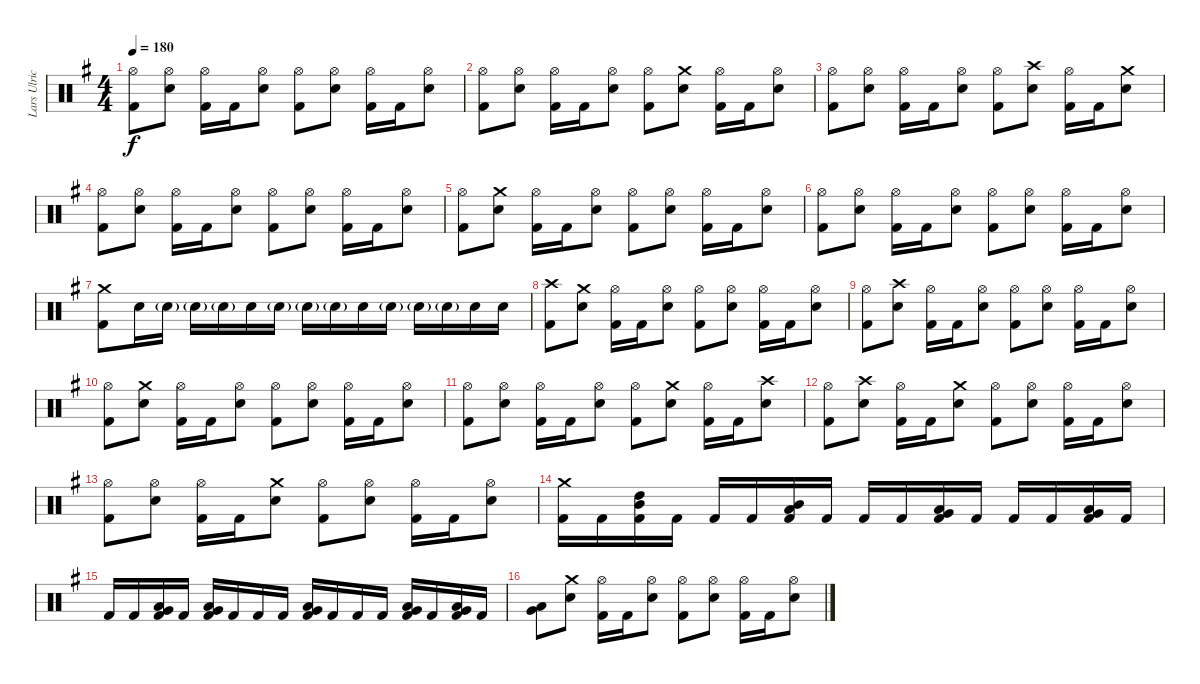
\track ("Lars Ulrich" "Lars Ulric") {instrument percussion}
\staff {score}
\articulation defaults
\ts (4 4)
\tempo 180
\clef neutral
\ks eminor
("Hi-Hat (open)" "Kick (hit) 2").8{dy f} ("Hi-Hat (open)" "Snare (hit) 2").8 ("Hi-Hat (open)" "Kick (hit) 2").16 "Kick (hit) 2".16 ("Hi-Hat (open)" "Snare (hit) 2").8 ("Hi-Hat (open)" "Kick (hit) 2").8 ("Hi-Hat (open)" "Snare (hit) 2").8 ("Hi-Hat (open)" "Kick (hit) 2").16 "Kick (hit) 2".16 ("Hi-Hat (open)" "Snare (hit) 2").8 |
("Hi-Hat (open)" "Kick (hit) 2").8 ("Hi-Hat (open)" "Snare (hit) 2").8 ("Hi-Hat (open)" "Kick (hit) 2").16 "Kick (hit) 2".16 ("Hi-Hat (open)" "Snare (hit) 2").8 ("Hi-Hat (open)" "Kick (hit) 2").8 ("Crash medium (hit)" "Snare (hit) 2").8 ("Hi-Hat (open)" "Kick (hit) 2").16 "Kick (hit) 2".16 ("Hi-Hat (open)" "Snare (hit) 2").8 |
("Hi-Hat (open)" "Kick (hit) 2").8 ("Hi-Hat (open)" "Snare (hit) 2").8 ("Hi-Hat (open)" "Kick (hit) 2").16 "Kick (hit) 2".16 ("Hi-Hat (open)" "Snare (hit) 2").8 ("Hi-Hat (open)" "Kick (hit) 2").8 ("Crash high (hit)" "Snare (hit) 2").8 ("Hi-Hat (open)" "Kick (hit) 2").16 "Kick (hit) 2".16 ("Crash medium (hit)" "Snare (hit) 2").8 |
("Hi-Hat (open)" "Kick (hit) 2").8 ("Hi-Hat (open)" "Snare (hit) 2").8 ("Hi-Hat (open)" "Kick (hit) 2").16 "Kick (hit) 2".16 ("Hi-Hat (open)" "Snare (hit) 2").8 ("Hi-Hat (open)" "Kick (hit) 2").8 ("Hi-Hat (open)" "Snare (hit) 2").8 ("Hi-Hat (open)" "Kick (hit) 2").16 "Kick (hit) 2".16 ("Hi-Hat (open)" "Snare (hit) 2").8 |
("Hi-Hat (open)" "Kick (hit) 2").8 ("Crash medium (hit)" "Snare (hit) 2").8 ("Hi-Hat (open)" "Kick (hit) 2").16 "Kick (hit) 2".16 ("Hi-Hat (open)" "Snare (hit) 2").8 ("Hi-Hat (open)" "Kick (hit) 2").8 ("Hi-Hat (open)" "Snare (hit) 2").8 ("Hi-Hat (open)" "Kick (hit) 2").16 "Kick (hit) 2".16 ("Hi-Hat (open)" "Snare (hit) 2").8 |
("Hi-Hat (open)" "Kick (hit) 2").8 ("Hi-Hat (open)" "Snare (hit) 2").8 ("Hi-Hat (open)" "Kick (hit) 2").16 "Kick (hit) 2".16 ("Hi-Hat (open)" "Snare (hit) 2").8 ("Hi-Hat (open)" "Kick (hit) 2").8 ("Hi-Hat (open)" "Snare (hit) 2").8 ("Hi-Hat (open)" "Kick (hit) 2").16 "Kick (hit) 2".16 ("Hi-Hat (open)" "Snare (hit) 2").8 |
("Crash medium (hit)" "Kick (hit) 2").8 "Snare (hit) 2".16 "Snare (hit) 2"{g}.16 "Snare (hit) 2"{g}.16 "Snare (hit) 2"{g}.16 "Snare (hit) 2".16 "Snare (hit) 2"{g}.16 "Snare (hit) 2"{g}.16 "Snare (hit) 2"{g}.16 "Snare (hit) 2".16 "Snare (hit) 2"{g}.16 "Snare (hit) 2"{g}.16 "Snare (hit) 2"{g}.16 "Snare (hit) 2".16 "Snare (hit) 2".16 |
("Crash high (hit)" "Kick (hit) 2").8 ("Crash medium (hit)" "Snare (hit) 2").8 ("Hi-Hat (open)" "Kick (hit) 2").16 "Kick (hit) 2".16 ("Hi-Hat (open)" "Snare (hit) 2").8 ("Hi-Hat (open)" "Kick (hit) 2").8 ("Hi-Hat (open)" "Snare (hit) 2").8 ("Hi-Hat (open)" "Kick (hit) 2").16 "Kick (hit) 2".16 ("Hi-Hat (open)" "Snare (hit) 2").8 |
("Hi-Hat (open)" "Kick (hit) 2").8 ("Crash high (hit)" "Snare (hit) 2").8 ("Hi-Hat (open)" "Kick (hit) 2").16 "Kick (hit) 2".16 ("Hi-Hat (open)" "Snare (hit) 2").8 ("Hi-Hat (open)" "Kick (hit) 2").8 ("Hi-Hat (open)" "Snare (hit) 2").8 ("Hi-Hat (open)" "Kick (hit) 2").16 "Kick (hit) 2".16 ("Hi-Hat (open)" "Snare (hit) 2").8 |
("Hi-Hat (open)" "Kick (hit) 2").8 ("Crash medium (hit)" "Snare (hit) 2").8 ("Hi-Hat (open)" "Kick (hit) 2").16 "Kick (hit) 2".16 ("Hi-Hat (open)" "Snare (hit) 2").8 ("Hi-Hat (open)" "Kick (hit) 2").8 ("Hi-Hat (open)" "Snare (hit) 2").8 ("Hi-Hat (open)" "Kick (hit) 2").16 "Kick (hit) 2".16 ("Hi-Hat (open)" "Snare (hit) 2").8 |
("Hi-Hat (open)" "Kick (hit) 2").8 ("Hi-Hat (open)" "Snare (hit) 2").8 ("Hi-Hat (open)" "Kick (hit) 2").16 "Kick (hit) 2".16 ("Hi-Hat (open)" "Snare (hit) 2").8 ("Hi-Hat (open)" "Kick (hit) 2").8 ("Crash medium (hit)" "Snare (hit) 2").8 ("Hi-Hat (open)" "Kick (hit) 2").16 "Kick (hit) 2".16 ("Crash high (hit)" "Snare (hit) 2").8 |
("Hi-Hat (open)" "Kick (hit) 2").8 ("Crash high (hit)" "Snare (hit) 2").8 ("Hi-Hat (open)" "Kick (hit) 2").16 "Kick (hit) 2".16 ("Crash medium (hit)" "Snare (hit) 2").8 ("Hi-Hat (open)" "Kick (hit) 2").8 ("Hi-Hat (open)" "Snare (hit) 2").8 ("Hi-Hat (open)" "Kick (hit) 2").16 "Kick (hit) 2".16 ("Hi-Hat (open)" "Snare (hit) 2").8 |
("Hi-Hat (open)" "Kick (hit) 2").8 ("Hi-Hat (open)" "Snare (hit) 2").8 ("Hi-Hat (open)" "Kick (hit) 2").16 "Kick (hit) 2".16 ("Crash medium (hit)" "Snare (hit) 2").8 ("Hi-Hat (open)" "Kick (hit) 2").8 ("Hi-Hat (open)" "Snare (hit) 2").8 ("Hi-Hat (open)" "Kick (hit) 2").16 "Kick (hit) 2".16 ("Hi-Hat (open)" "Snare (hit) 2").8 |
("Crash medium (hit)" "Kick (hit) 2").16 "Kick (hit) 2".16 ("High Tom (hit)" "Mid Tom (hit)" "Kick (hit) 2").16 "Kick (hit) 2".16 "Kick (hit) 2".16 "Kick (hit) 2".16 ("Mid Tom (hit)" "Low Tom (hit)" "Kick (hit) 2").16 "Kick (hit) 2".16 "Kick (hit) 2".16 "Kick (hit) 2".16 ("Low Tom (hit)" "Very Low Tom (hit)" "Kick (hit) 2").16 "Kick (hit) 2".16 "Kick (hit) 2".16 "Kick (hit) 2".16 ("Very Low Tom (hit)" "Low Floor Tom (hit)" "Kick (hit) 2").16 "Kick (hit) 2".16 |
"Kick (hit) 2".16 "Kick (hit) 2".16 ("Very Low Tom (hit)" "Low Floor Tom (hit)" "Kick (hit) 2").16 "Kick (hit) 2".16 ("Very Low Tom (hit)" "Low Floor Tom (hit)" "Kick (hit) 2").16 "Kick (hit) 2".16 "Kick (hit) 2".16 "Kick (hit) 2".16 ("Very Low Tom (hit)" "Low Floor Tom (hit)" "Kick (hit) 2").16 "Kick (hit) 2".16 "Kick (hit) 2".16 "Kick (hit) 2".16 ("Very Low Tom (hit)" "Low Floor Tom (hit)" "Kick (hit) 2").16 "Kick (hit) 2".16 ("Very Low Tom (hit)" "Low Floor Tom (hit)" "Kick (hit) 2").16 "Kick (hit) 2".16 |
("Very Low Tom (hit)" "Low Floor Tom (hit)").8 ("Crash medium (hit)" "Snare (hit) 2").8 ("Hi-Hat (open)" "Kick (hit) 2").16 "Kick (hit) 2".16 ("Hi-Hat (open)" "Snare (hit) 2").8 ("Hi-Hat (open)" "Kick (hit) 2").8 ("Hi-Hat (open)" "Snare (hit) 2").8 ("Hi-Hat (open)" "Kick (hit) 2").16 "Kick (hit) 2".16 ("Hi-Hat (open)" "Snare (hit) 2").8
